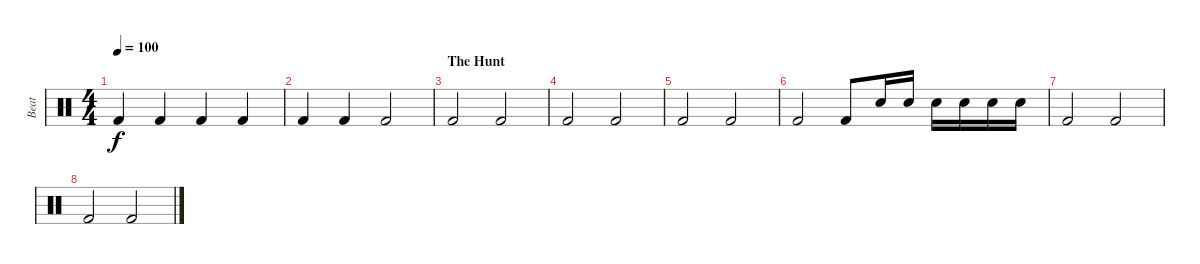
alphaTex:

\track ("Beat" "Beat") {instrument percussion}
\staff {score}
\articulation defaults
\ts (4 4)
\tempo 100
\clef neutral
\ks c "Kick (hit) 2".4{dy f} "Kick (hit) 2".4 "Kick (hit) 2".4 "Kick (hit) 2".4
|
"Kick (hit) 2".4 "Kick (hit) 2".4 "Kick (hit) 2".2 |
\section ("" "The Hunt")
"Kick (hit) 2".2 "Kick (hit) 2".2 |
"Kick (hit) 2".2 "Kick (hit) 2".2 |
"Kick (hit) 2".2 "Kick (hit) 2".2 |
"Kick (hit) 2".2 "Kick (hit) 2".8 "Snare (hit) 2".16 "Snare (hit) 2".16 "Snare (hit) 2".16 "Snare (hit) 2".16 "Snare (hit) 2".16 "Snare (hit) 2".16 |
"Kick (hit) 2".2 "Kick (hit) 2".2 |
"Kick (hit) 2".2 "Kick (hit) 2".2
